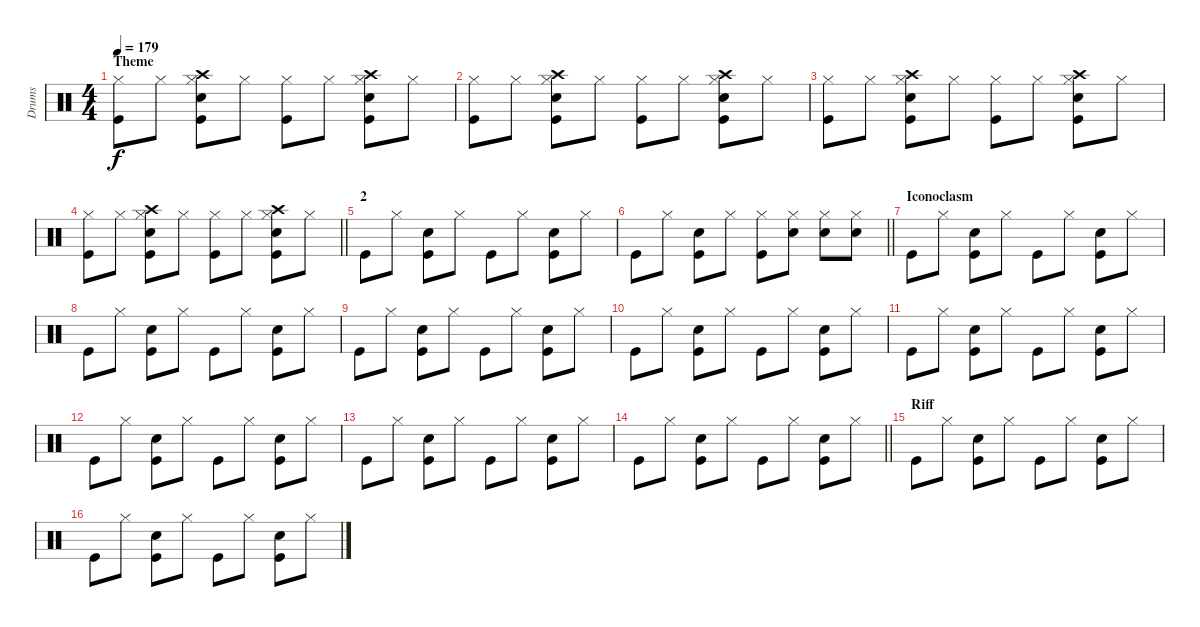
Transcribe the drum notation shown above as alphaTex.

\track ("Drums" "Drums") {instrument percussion}
\staff {score}
\articulation defaults
\ts (4 4)
\section ("" "Theme")
\tempo 179
\clef neutral
\ks c
("Hi-Hat (closed)" "Kick (hit)").8{dy f} "Hi-Hat (closed)".8 ("Crash high (hit)" "Hi-Hat (closed)" "Snare (hit) 2" "Kick (hit)").8 "Hi-Hat (closed)".8 ("Hi-Hat (closed)" "Kick (hit)").8 "Hi-Hat (closed)".8 ("Crash high (hit)" "Hi-Hat (closed)" "Snare (hit) 2" "Kick (hit)").8 "Hi-Hat (closed)".8 |
("Hi-Hat (closed)" "Kick (hit)").8 "Hi-Hat (closed)".8 ("Crash high (hit)" "Hi-Hat (closed)" "Snare (hit) 2" "Kick (hit)").8 "Hi-Hat (closed)".8 ("Hi-Hat (closed)" "Kick (hit)").8 "Hi-Hat (closed)".8 ("Crash high (hit)" "Hi-Hat (closed)" "Snare (hit) 2" "Kick (hit)").8 "Hi-Hat (closed)".8 |
("Hi-Hat (closed)" "Kick (hit)").8 "Hi-Hat (closed)".8 ("Crash high (hit)" "Hi-Hat (closed)" "Snare (hit) 2" "Kick (hit)").8 "Hi-Hat (closed)".8 ("Hi-Hat (closed)" "Kick (hit)").8 "Hi-Hat (closed)".8 ("Crash high (hit)" "Hi-Hat (closed)" "Snare (hit) 2" "Kick (hit)").8 "Hi-Hat (closed)".8 |
\barLineRight lightlight
("Hi-Hat (closed)" "Kick (hit)").8 "Hi-Hat (closed)".8 ("Crash high (hit)" "Hi-Hat (closed)" "Snare (hit) 2" "Kick (hit)").8 "Hi-Hat (closed)".8 ("Hi-Hat (closed)" "Kick (hit)").8 "Hi-Hat (closed)".8 ("Crash high (hit)" "Hi-Hat (closed)" "Snare (hit) 2" "Kick (hit)").8 "Hi-Hat (closed)".8 |
\section ("" "2")
"Kick (hit)".8 "Hi-Hat (closed)".8 ("Snare (hit) 2" "Kick (hit)").8 "Hi-Hat (closed)".8 "Kick (hit)".8 "Hi-Hat (closed)".8 ("Snare (hit) 2" "Kick (hit)").8 "Hi-Hat (closed)".8 |
\barLineRight lightlight "Kick (hit)".8 "Hi-Hat (closed)".8
("Snare (hit) 2" "Kick (hit)").8 "Hi-Hat (closed)".8 ("Hi-Hat (closed)" "Kick (hit)").8 ("Hi-Hat (closed)" "Snare (hit) 2").8 ("Hi-Hat (closed)" "Snare (hit) 2").8 ("Hi-Hat (closed)" "Snare (hit) 2").8 |
\section ("" "Iconoclasm")
"Kick (hit)".8 "Hi-Hat (closed)".8 ("Snare (hit) 2" "Kick (hit)").8 "Hi-Hat (closed)".8 "Kick (hit)".8 "Hi-Hat (closed)".8 ("Snare (hit) 2" "Kick (hit)").8 "Hi-Hat (closed)".8 |
"Kick (hit)".8 "Hi-Hat (closed)".8 ("Snare (hit) 2" "Kick (hit)").8 "Hi-Hat (closed)".8 "Kick (hit)".8 "Hi-Hat (closed)".8 ("Snare (hit) 2" "Kick (hit)").8 "Hi-Hat (closed)".8 |
"Kick (hit)".8 "Hi-Hat (closed)".8 ("Snare (hit) 2" "Kick (hit)").8 "Hi-Hat (closed)".8 "Kick (hit)".8 "Hi-Hat (closed)".8 ("Snare (hit) 2" "Kick (hit)").8 "Hi-Hat (closed)".8 |
"Kick (hit)".8 "Hi-Hat (closed)".8 ("Snare (hit) 2" "Kick (hit)").8 "Hi-Hat (closed)".8 "Kick (hit)".8 "Hi-Hat (closed)".8 ("Snare (hit) 2" "Kick (hit)").8 "Hi-Hat (closed)".8 |
"Kick (hit)".8 "Hi-Hat (closed)".8 ("Snare (hit) 2" "Kick (hit)").8 "Hi-Hat (closed)".8 "Kick (hit)".8 "Hi-Hat (closed)".8 ("Snare (hit) 2" "Kick (hit)").8 "Hi-Hat (closed)".8 |
"Kick (hit)".8 "Hi-Hat (closed)".8 ("Snare (hit) 2" "Kick (hit)").8 "Hi-Hat (closed)".8 "Kick (hit)".8 "Hi-Hat (closed)".8 ("Snare (hit) 2" "Kick (hit)").8 "Hi-Hat (closed)".8 |
"Kick (hit)".8 "Hi-Hat (closed)".8 ("Snare (hit) 2" "Kick (hit)").8 "Hi-Hat (closed)".8 "Kick (hit)".8 "Hi-Hat (closed)".8 ("Snare (hit) 2" "Kick (hit)").8 "Hi-Hat (closed)".8 |
\barLineRight lightlight "Kick (hit)".8 "Hi-Hat (closed)".8
("Snare (hit) 2" "Kick (hit)").8 "Hi-Hat (closed)".8 "Kick (hit)".8 "Hi-Hat (closed)".8 ("Snare (hit) 2" "Kick (hit)").8 "Hi-Hat (closed)".8 |
\section ("" "Riff")
"Kick (hit)".8 "Hi-Hat (closed)".8 ("Snare (hit) 2" "Kick (hit)").8 "Hi-Hat (closed)".8 "Kick (hit)".8 "Hi-Hat (closed)".8 ("Snare (hit) 2" "Kick (hit)").8 "Hi-Hat (closed)".8 |
"Kick (hit)".8 "Hi-Hat (closed)".8 ("Snare (hit) 2" "Kick (hit)").8 "Hi-Hat (closed)".8 "Kick (hit)".8 "Hi-Hat (closed)".8 ("Snare (hit) 2" "Kick (hit)").8 "Hi-Hat (closed)".8
